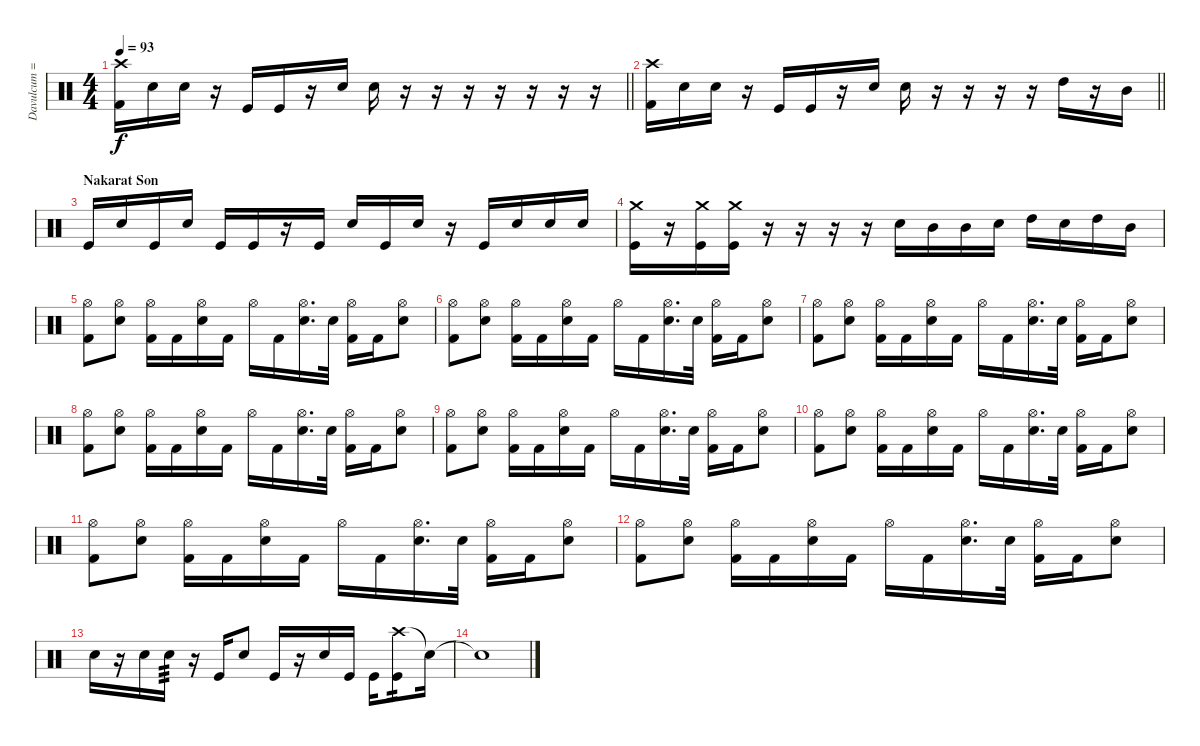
\track ("Davulcum =)" "Davulcum =") {instrument percussion}
\staff {score}
\articulation defaults
\ts (4 4)
\tempo 93
\clef neutral
\barLineRight lightlight
\ks c
("Crash high (hit)" "Kick (hit) 2").16{dy f} "Snare (hit) 2".16 "Snare (hit) 2".16 r.16 "Kick (hit)".16 "Kick (hit)".16 r.16 "Snare (hit) 2".16 "Snare (hit) 2".16 r.16 r.16 r.16 r.16 r.16 r.16 r.16 |
\barLineRight lightlight
("Crash high (hit)" "Kick (hit) 2").16 "Snare (hit) 2".16 "Snare (hit) 2".16 r.16 "Kick (hit)".16 "Kick (hit)".16 r.16 "Snare (hit) 2".16 "Snare (hit) 2".16 r.16 r.16 r.16 r.16 "High Tom (hit)".16 r.16 "Mid Tom (hit)".16 |
\section ("" "Nakarat Son")
"Kick (hit)".16 "Snare (hit) 2".16 "Kick (hit)".16 "Snare (hit) 2".16 "Kick (hit)".16 "Kick (hit)".16 r.16 "Kick (hit)".16 "Snare (hit) 2".16 "Kick (hit)".16 "Snare (hit) 2".16 r.16 "Kick (hit)".16 "Snare (hit) 2".16 "Snare (hit) 2".16 "Snare (hit) 2".16 |
("Crash medium (hit)" "Kick (hit)").16 r.16 ("Crash medium (hit)" "Kick (hit)").16 ("Crash medium (hit)" "Kick (hit)").16 r.16 r.16 r.16 r.16 "Snare (hit) 2".16 "Mid Tom (hit)".16 "Mid Tom (hit)".16 "Snare (hit) 2".16 "High Tom (hit)".16 "Snare (hit) 2".16 "High Tom (hit)".16 "Mid Tom (hit)".16 |
("Kick (hit) 2" "Hi-Hat (open)").8 ("Electric Snare (hit)" "Hi-Hat (open)").8 ("Kick (hit) 2" "Hi-Hat (open)").16 "Kick (hit) 2".16 ("Electric Snare (hit)" "Hi-Hat (open)").16 "Kick (hit) 2".16 "Hi-Hat (open)".16 "Kick (hit) 2".16 ("Electric Snare (hit)" "Hi-Hat (open)").16{d} "Electric Snare (hit)".32 ("Kick (hit) 2" "Hi-Hat (open)").16 "Kick (hit) 2".16 ("Electric Snare (hit)" "Hi-Hat (open)").8 |
("Kick (hit) 2" "Hi-Hat (open)").8 ("Electric Snare (hit)" "Hi-Hat (open)").8 ("Kick (hit) 2" "Hi-Hat (open)").16 "Kick (hit) 2".16 ("Electric Snare (hit)" "Hi-Hat (open)").16 "Kick (hit) 2".16 "Hi-Hat (open)".16 "Kick (hit) 2".16 ("Electric Snare (hit)" "Hi-Hat (open)").16{d} "Electric Snare (hit)".32 ("Kick (hit) 2" "Hi-Hat (open)").16 "Kick (hit) 2".16 ("Electric Snare (hit)" "Hi-Hat (open)").8 |
("Kick (hit) 2" "Hi-Hat (open)").8 ("Electric Snare (hit)" "Hi-Hat (open)").8 ("Kick (hit) 2" "Hi-Hat (open)").16 "Kick (hit) 2".16 ("Electric Snare (hit)" "Hi-Hat (open)").16 "Kick (hit) 2".16 "Hi-Hat (open)".16 "Kick (hit) 2".16 ("Electric Snare (hit)" "Hi-Hat (open)").16{d} "Electric Snare (hit)".32 ("Kick (hit) 2" "Hi-Hat (open)").16 "Kick (hit) 2".16 ("Electric Snare (hit)" "Hi-Hat (open)").8 |
("Kick (hit) 2" "Hi-Hat (open)").8 ("Electric Snare (hit)" "Hi-Hat (open)").8 ("Kick (hit) 2" "Hi-Hat (open)").16 "Kick (hit) 2".16 ("Electric Snare (hit)" "Hi-Hat (open)").16 "Kick (hit) 2".16 "Hi-Hat (open)".16 "Kick (hit) 2".16 ("Electric Snare (hit)" "Hi-Hat (open)").16{d} "Electric Snare (hit)".32 ("Kick (hit) 2" "Hi-Hat (open)").16 "Kick (hit) 2".16 ("Electric Snare (hit)" "Hi-Hat (open)").8 |
("Kick (hit) 2" "Hi-Hat (open)").8 ("Electric Snare (hit)" "Hi-Hat (open)").8 ("Kick (hit) 2" "Hi-Hat (open)").16 "Kick (hit) 2".16 ("Electric Snare (hit)" "Hi-Hat (open)").16 "Kick (hit) 2".16 "Hi-Hat (open)".16 "Kick (hit) 2".16 ("Electric Snare (hit)" "Hi-Hat (open)").16{d} "Electric Snare (hit)".32 ("Kick (hit) 2" "Hi-Hat (open)").16 "Kick (hit) 2".16 ("Electric Snare (hit)" "Hi-Hat (open)").8 |
("Kick (hit) 2" "Hi-Hat (open)").8 ("Electric Snare (hit)" "Hi-Hat (open)").8 ("Kick (hit) 2" "Hi-Hat (open)").16 "Kick (hit) 2".16 ("Electric Snare (hit)" "Hi-Hat (open)").16 "Kick (hit) 2".16 "Hi-Hat (open)".16 "Kick (hit) 2".16 ("Electric Snare (hit)" "Hi-Hat (open)").16{d} "Electric Snare (hit)".32 ("Kick (hit) 2" "Hi-Hat (open)").16 "Kick (hit) 2".16 ("Electric Snare (hit)" "Hi-Hat (open)").8 |
("Kick (hit) 2" "Hi-Hat (open)").8 ("Electric Snare (hit)" "Hi-Hat (open)").8 ("Kick (hit) 2" "Hi-Hat (open)").16 "Kick (hit) 2".16 ("Electric Snare (hit)" "Hi-Hat (open)").16 "Kick (hit) 2".16 "Hi-Hat (open)".16 "Kick (hit) 2".16 ("Electric Snare (hit)" "Hi-Hat (open)").16{d} "Electric Snare (hit)".32 ("Kick (hit) 2" "Hi-Hat (open)").16 "Kick (hit) 2".16 ("Electric Snare (hit)" "Hi-Hat (open)").8 |
("Kick (hit) 2" "Hi-Hat (open)").8 ("Electric Snare (hit)" "Hi-Hat (open)").8 ("Kick (hit) 2" "Hi-Hat (open)").16 "Kick (hit) 2".16 ("Electric Snare (hit)" "Hi-Hat (open)").16 "Kick (hit) 2".16 "Hi-Hat (open)".16 "Kick (hit) 2".16 ("Electric Snare (hit)" "Hi-Hat (open)").16{d} "Electric Snare (hit)".32 ("Kick (hit) 2" "Hi-Hat (open)").16 "Kick (hit) 2".16 ("Electric Snare (hit)" "Hi-Hat (open)").8 |
"Snare (hit) 2".16 r.16 "Snare (hit) 2".16 "Snare (hit) 2".16{tp 3} r.16 "Kick (hit)".16 "Snare (hit) 2".8 "Kick (hit)".16 r.16 "Snare (hit) 2".16 "Kick (hit)".16 "Kick (hit)".16 ("Crash high (hit)" "Kick (hit)").8{tp 2} "Snare (hit)"{t}.16 |
"Snare (hit)"{t}.1
